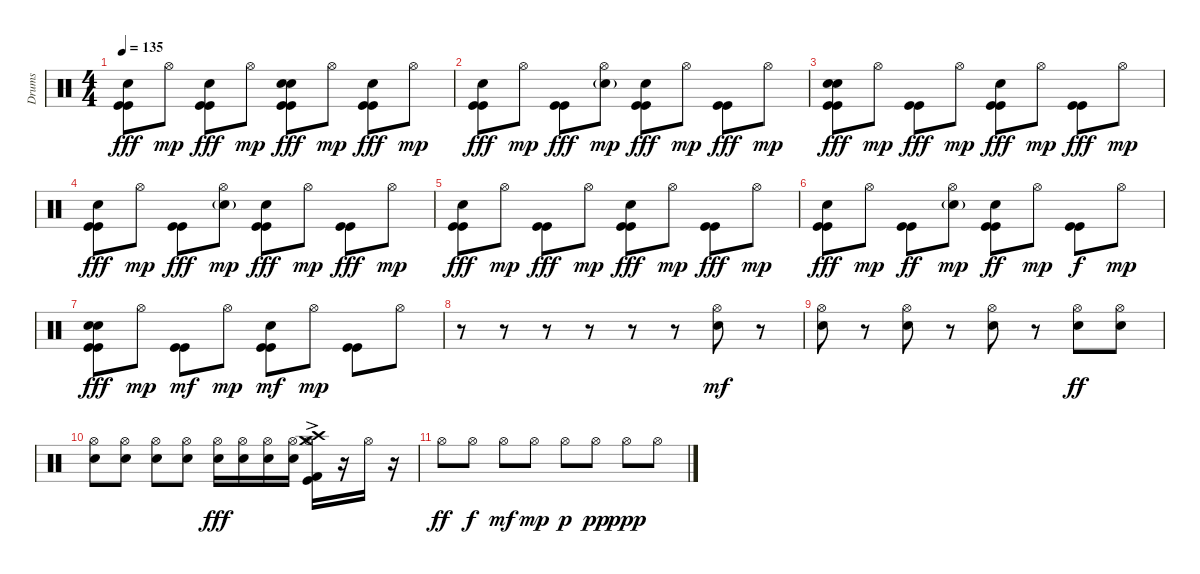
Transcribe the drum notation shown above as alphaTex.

\track ("Drums" "Drums") {instrument percussion bank 24}
\staff
\articulation defaults
\ts (4 4)
\tempo 135
\clef neutral
\ks c
("Kick (hit)" "Kick (hit)" "Snare (hit) 2").8{dy fff} "Hi-Hat (open)".8{dy mp} ("Snare (hit)" "Kick (hit)" "Kick (hit)").8{dy fff} "Hi-Hat (open)".8{dy mp} ("Snare (hit)" "Kick (hit)" "Kick (hit)" "Snare (hit) 2").8{dy fff} "Hi-Hat (open)".8{dy mp} ("Snare (hit)" "Kick (hit)" "Kick (hit)").8{dy fff} "Hi-Hat (open)".8{dy mp} |
("Kick (hit)" "Kick (hit)" "Snare (hit) 2").8{dy fff} "Hi-Hat (open)".8{dy mp} ("Kick (hit)" "Kick (hit)").8{dy fff} ("Hi-Hat (open)" "Snare (hit) 2"{g}).8{dy mp} ("Kick (hit)" "Kick (hit)" "Snare (hit) 2").8{dy fff} "Hi-Hat (open)".8{dy mp} ("Kick (hit)" "Kick (hit)").8{dy fff} "Hi-Hat (open)".8{dy mp} |
("Snare (hit)" "Kick (hit)" "Kick (hit)" "Snare (hit) 2").8{dy fff} "Hi-Hat (open)".8{dy mp} ("Kick (hit)" "Kick (hit)").8{dy fff} "Hi-Hat (open)".8{dy mp} ("Kick (hit)" "Kick (hit)" "Snare (hit) 2").8{dy fff} "Hi-Hat (open)".8{dy mp} ("Kick (hit)" "Kick (hit)").8{dy fff} "Hi-Hat (open)".8{dy mp} |
("Kick (hit)" "Kick (hit)" "Snare (hit) 2").8{dy fff} "Hi-Hat (open)".8{dy mp} ("Kick (hit)" "Kick (hit)").8{dy fff} ("Hi-Hat (open)" "Snare (hit) 2"{g}).8{dy mp} ("Kick (hit)" "Kick (hit)" "Snare (hit) 2").8{dy fff} "Hi-Hat (open)".8{dy mp} ("Kick (hit)" "Kick (hit)").8{dy fff} "Hi-Hat (open)".8{dy mp} |
("Kick (hit)" "Kick (hit)" "Snare (hit) 2").8{dy fff} "Hi-Hat (open)".8{dy mp} ("Kick (hit)" "Kick (hit)").8{dy fff} "Hi-Hat (open)".8{dy mp} ("Kick (hit)" "Kick (hit)" "Snare (hit) 2").8{dy fff} "Hi-Hat (open)".8{dy mp} ("Kick (hit)" "Kick (hit)").8{dy fff} "Hi-Hat (open)".8{dy mp} |
("Kick (hit)" "Kick (hit)" "Snare (hit) 2").8{dy fff} "Hi-Hat (open)".8{dy mp} ("Kick (hit)" "Kick (hit)").8{dy ff} ("Hi-Hat (open)" "Snare (hit) 2"{g}).8{dy mp} ("Kick (hit)" "Kick (hit)" "Snare (hit) 2").8{dy ff} "Hi-Hat (open)".8{dy mp} ("Kick (hit)" "Kick (hit)").8{dy f} "Hi-Hat (open)".8{dy mp} |
("Snare (hit)" "Kick (hit)" "Kick (hit)" "Snare (hit) 2").8{dy fff} "Hi-Hat (open)".8{dy mp} ("Kick (hit)" "Kick (hit)").8{dy mf} "Hi-Hat (open)".8{dy mp} ("Kick (hit)" "Kick (hit)" "Snare (hit) 2").8{dy mf} "Hi-Hat (open)".8{dy mp} ("Kick (hit)" "Kick (hit)").8 "Hi-Hat (open)".8 |
r.8 r.8 r.8 r.8 r.8 r.8 ("Hi-Hat (open)" "Electric Snare (hit)").8{dy mf} r.8 |
("Hi-Hat (open)" "Electric Snare (hit)").8 r.8 ("Hi-Hat (open)" "Electric Snare (hit)").8 r.8 ("Hi-Hat (open)" "Electric Snare (hit)").8 r.8 ("Hi-Hat (open)" "Electric Snare (hit)").8{dy ff} ("Hi-Hat (open)" "Electric Snare (hit)").8 |
("Hi-Hat (open)" "Electric Snare (hit)").8 ("Hi-Hat (open)" "Electric Snare (hit)").8 ("Hi-Hat (open)" "Electric Snare (hit)").8 ("Hi-Hat (open)" "Electric Snare (hit)").8 ("Hi-Hat (open)" "Electric Snare (hit)").16{dy fff} ("Hi-Hat (open)" "Electric Snare (hit)").16 ("Hi-Hat (open)" "Electric Snare (hit)").16 ("Hi-Hat (open)" "Electric Snare (hit)").16 ("Hi-Hat (open)" "Kick (hit)"{ac} "Kick (hit) 2"{ac} "Crash medium (hit)" "Crash high (hit)").16 r.16 "Hi-Hat (open)".16 r.16 |
"Hi-Hat (open)".8{dy ff} "Hi-Hat (open)".8{dy f} "Hi-Hat (open)".8{dy mf} "Hi-Hat (open)".8{dy mp} "Hi-Hat (open)".8{dy p} "Hi-Hat (open)".8{dy pp} "Hi-Hat (open)".8{dy ppp} "Hi-Hat (open)".8
